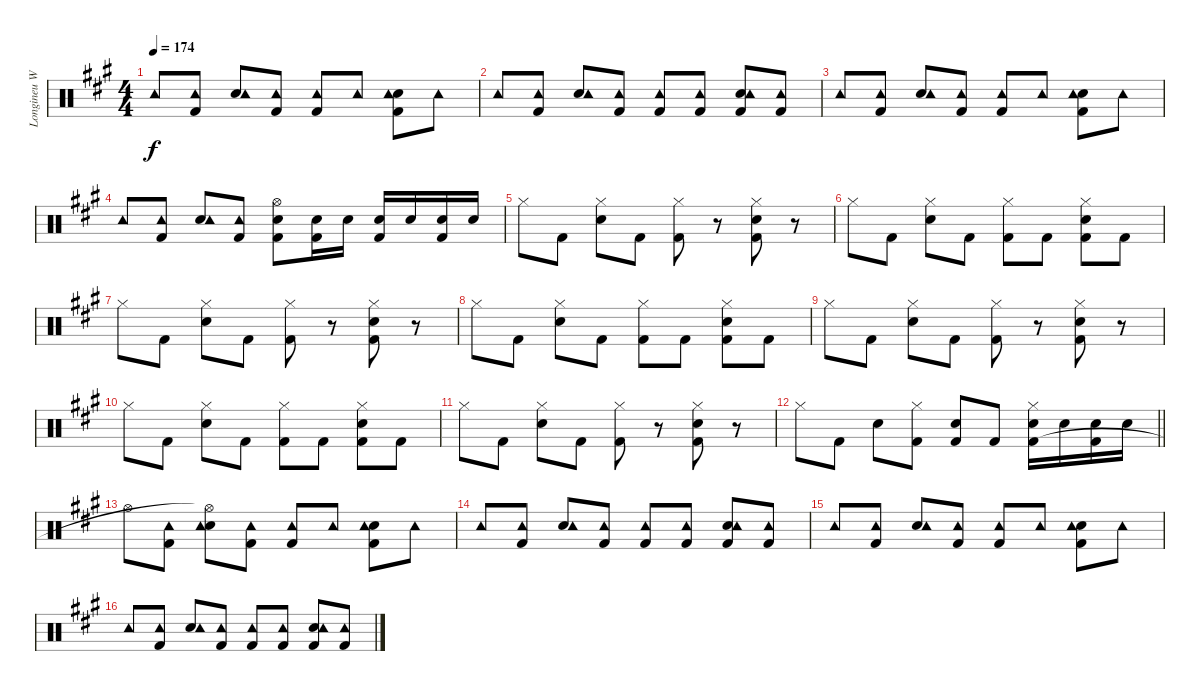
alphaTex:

\track ("Longineu W. Parsons III" "Longineu W") {instrument percussion}
\staff {score}
\articulation defaults
\ts (4 4)
\tempo 174
\clef neutral
\ks a "Tambourine (hit)".8{dy f}
("Tambourine (hit)" "Kick (hit) 2").8 ("Electric Snare (hit)" "Tambourine (hit)").8 ("Tambourine (hit)" "Kick (hit) 2").8 ("Tambourine (hit)" "Kick (hit) 2").8 "Tambourine (hit)".8 ("Electric Snare (hit)" "Tambourine (hit)" "Kick (hit) 2").8 "Tambourine (hit)".8 |
"Tambourine (hit)".8 ("Tambourine (hit)" "Kick (hit) 2").8 ("Electric Snare (hit)" "Tambourine (hit)").8 ("Tambourine (hit)" "Kick (hit) 2").8 ("Tambourine (hit)" "Kick (hit) 2").8 ("Tambourine (hit)" "Kick (hit) 2").8 ("Electric Snare (hit)" "Tambourine (hit)" "Kick (hit) 2").8 ("Tambourine (hit)" "Kick (hit) 2").8 |
"Tambourine (hit)".8 ("Tambourine (hit)" "Kick (hit) 2").8 ("Electric Snare (hit)" "Tambourine (hit)").8 ("Tambourine (hit)" "Kick (hit) 2").8 ("Tambourine (hit)" "Kick (hit) 2").8 "Tambourine (hit)".8 ("Electric Snare (hit)" "Tambourine (hit)" "Kick (hit) 2").8 "Tambourine (hit)".8 |
"Tambourine (hit)".8 ("Tambourine (hit)" "Kick (hit) 2").8 ("Electric Snare (hit)" "Tambourine (hit)").8 ("Tambourine (hit)" "Kick (hit) 2").8 ("Electric Snare (hit)" "Hi-Hat (open)" "Kick (hit) 2").8 ("Electric Snare (hit)" "Kick (hit) 2").16 "Electric Snare (hit)".16 ("Electric Snare (hit)" "Kick (hit) 2").16 "Electric Snare (hit)".16 ("Electric Snare (hit)" "Kick (hit) 2").16 "Electric Snare (hit)".16 |
"Hi-Hat (closed)".8 "Kick (hit) 2".8 ("Electric Snare (hit)" "Hi-Hat (closed)").8 "Kick (hit) 2".8 ("Hi-Hat (closed)" "Kick (hit) 2").8 r.8 ("Electric Snare (hit)" "Hi-Hat (closed)" "Kick (hit) 2").8 r.8 |
"Hi-Hat (closed)".8 "Kick (hit) 2".8 ("Electric Snare (hit)" "Hi-Hat (closed)").8 "Kick (hit) 2".8 ("Hi-Hat (closed)" "Kick (hit) 2").8 "Kick (hit) 2".8 ("Electric Snare (hit)" "Hi-Hat (closed)" "Kick (hit) 2").8 "Kick (hit) 2".8 |
"Hi-Hat (closed)".8 "Kick (hit) 2".8 ("Electric Snare (hit)" "Hi-Hat (closed)").8 "Kick (hit) 2".8 ("Hi-Hat (closed)" "Kick (hit) 2").8 r.8 ("Electric Snare (hit)" "Hi-Hat (closed)" "Kick (hit) 2").8 r.8 |
"Hi-Hat (closed)".8 "Kick (hit) 2".8 ("Electric Snare (hit)" "Hi-Hat (closed)").8 "Kick (hit) 2".8 ("Hi-Hat (closed)" "Kick (hit) 2").8 "Kick (hit) 2".8 ("Electric Snare (hit)" "Hi-Hat (closed)" "Kick (hit) 2").8 "Kick (hit) 2".8 |
"Hi-Hat (closed)".8 "Kick (hit) 2".8 ("Electric Snare (hit)" "Hi-Hat (closed)").8 "Kick (hit) 2".8 ("Hi-Hat (closed)" "Kick (hit) 2").8 r.8 ("Electric Snare (hit)" "Hi-Hat (closed)" "Kick (hit) 2").8 r.8 |
"Hi-Hat (closed)".8 "Kick (hit) 2".8 ("Electric Snare (hit)" "Hi-Hat (closed)").8 "Kick (hit) 2".8 ("Hi-Hat (closed)" "Kick (hit) 2").8 "Kick (hit) 2".8 ("Electric Snare (hit)" "Hi-Hat (closed)" "Kick (hit) 2").8 "Kick (hit) 2".8 |
"Hi-Hat (closed)".8 "Kick (hit) 2".8 ("Electric Snare (hit)" "Hi-Hat (closed)").8 "Kick (hit) 2".8 ("Hi-Hat (closed)" "Kick (hit) 2").8 r.8 ("Electric Snare (hit)" "Hi-Hat (closed)" "Kick (hit) 2").8 r.8 |
\barLineRight lightlight "Hi-Hat (closed)".8 "Kick (hit) 2".8 "Electric Snare (hit)".8
("Hi-Hat (closed)" "Kick (hit) 2").8 ("Electric Snare (hit)" "Kick (hit) 2").8 "Kick (hit) 2".8 ("Electric Snare (hit)" "Hi-Hat (closed)" "Kick (hit) 2").16 "Electric Snare (hit)".16 ("Electric Snare (hit)" "Kick (hit) 2").16 "Electric Snare (hit)".16 |
"Hi-Hat (open)".8 ("Tambourine (hit)" "Kick (hit) 2").8 ("Electric Snare (hit)" "Tambourine (hit)" "Hi-Hat (open)"{t}).8 ("Tambourine (hit)" "Kick (hit) 2").8 ("Tambourine (hit)" "Kick (hit) 2").8 "Tambourine (hit)".8 ("Electric Snare (hit)" "Tambourine (hit)" "Kick (hit) 2").8 "Tambourine (hit)".8 |
"Tambourine (hit)".8 ("Tambourine (hit)" "Kick (hit) 2").8 ("Electric Snare (hit)" "Tambourine (hit)").8 ("Tambourine (hit)" "Kick (hit) 2").8 ("Tambourine (hit)" "Kick (hit) 2").8 ("Tambourine (hit)" "Kick (hit) 2").8 ("Electric Snare (hit)" "Tambourine (hit)" "Kick (hit) 2").8 ("Tambourine (hit)" "Kick (hit) 2").8 |
"Tambourine (hit)".8 ("Tambourine (hit)" "Kick (hit) 2").8 ("Electric Snare (hit)" "Tambourine (hit)").8 ("Tambourine (hit)" "Kick (hit) 2").8 ("Tambourine (hit)" "Kick (hit) 2").8 "Tambourine (hit)".8 ("Electric Snare (hit)" "Tambourine (hit)" "Kick (hit) 2").8 "Tambourine (hit)".8 |
"Tambourine (hit)".8 ("Tambourine (hit)" "Kick (hit) 2").8 ("Electric Snare (hit)" "Tambourine (hit)").8 ("Tambourine (hit)" "Kick (hit) 2").8 ("Tambourine (hit)" "Kick (hit) 2").8 ("Tambourine (hit)" "Kick (hit) 2").8 ("Electric Snare (hit)" "Tambourine (hit)" "Kick (hit) 2").8 ("Tambourine (hit)" "Kick (hit) 2").8
